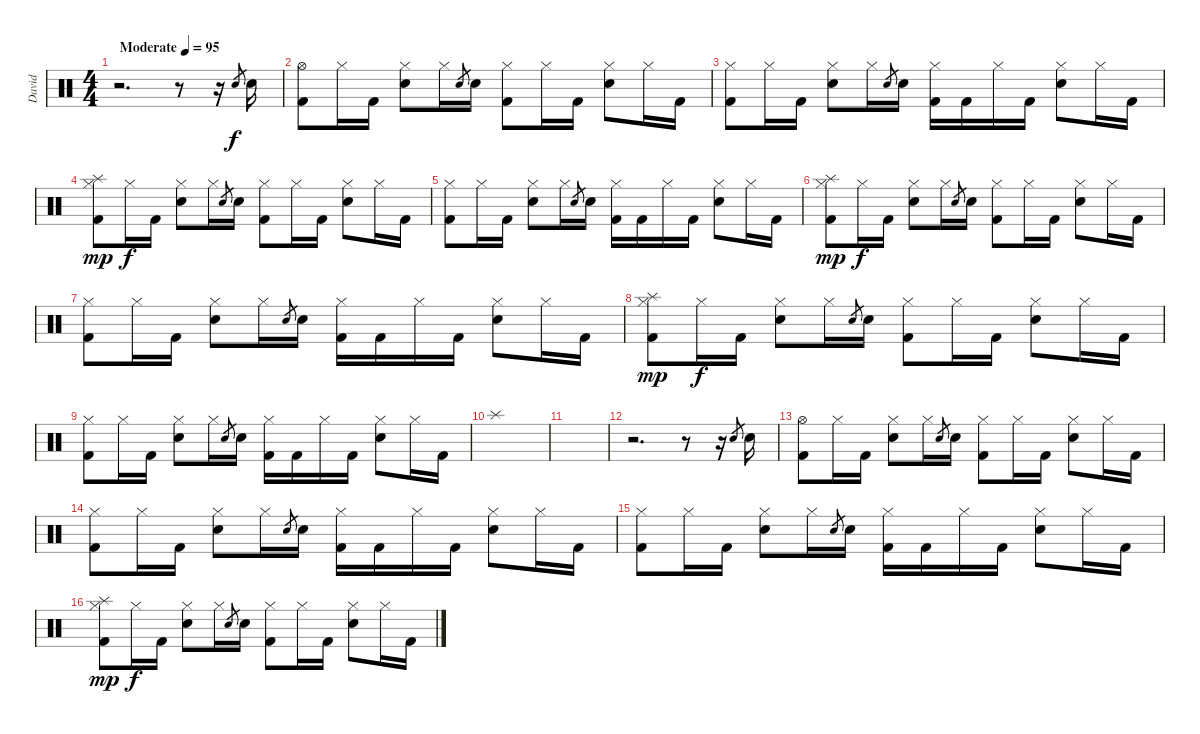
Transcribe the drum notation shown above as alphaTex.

\track ("David" "David") {instrument percussion}
\staff {score}
\articulation defaults
\ts (4 4)
\tempo (95 "Moderate")
\clef neutral
\ks c
r.2{d dy f} r.8 r.16 "Electric Snare (hit)".8{gr} "Electric Snare (hit)".16 |
("Hi-Hat (open)" "Kick (hit) 2").8 "Hi-Hat (closed)".16 "Kick (hit) 2".16 ("Hi-Hat (closed)" "Electric Snare (hit)").8 "Hi-Hat (closed)".16 "Electric Snare (hit)".8{gr} "Electric Snare (hit)".16 ("Hi-Hat (closed)" "Kick (hit) 2").8 "Hi-Hat (closed)".16 "Kick (hit) 2".16 ("Hi-Hat (closed)" "Electric Snare (hit)").8 "Hi-Hat (closed)".16 "Kick (hit) 2".16 |
("Hi-Hat (closed)" "Kick (hit) 2").8 "Hi-Hat (closed)".16 "Kick (hit) 2".16 ("Hi-Hat (closed)" "Electric Snare (hit)").8 "Hi-Hat (closed)".16 "Electric Snare (hit)".8{gr} "Electric Snare (hit)".16 ("Hi-Hat (closed)" "Kick (hit) 2").16 "Kick (hit) 2".16 "Hi-Hat (closed)".16 "Kick (hit) 2".16 ("Hi-Hat (closed)" "Electric Snare (hit)").8 "Hi-Hat (closed)".16 "Kick (hit) 2".16 |
("Hi-Hat (closed)" "Splash (hit)" "Kick (hit) 2").8{dy mp} "Hi-Hat (closed)".16{dy f} "Kick (hit) 2".16 ("Hi-Hat (closed)" "Electric Snare (hit)").8 "Hi-Hat (closed)".16 "Electric Snare (hit)".8{gr} "Electric Snare (hit)".16 ("Hi-Hat (closed)" "Kick (hit) 2").8 "Hi-Hat (closed)".16 "Kick (hit) 2".16 ("Hi-Hat (closed)" "Electric Snare (hit)").8 "Hi-Hat (closed)".16 "Kick (hit) 2".16 |
("Hi-Hat (closed)" "Kick (hit) 2").8 "Hi-Hat (closed)".16 "Kick (hit) 2".16 ("Hi-Hat (closed)" "Electric Snare (hit)").8 "Hi-Hat (closed)".16 "Electric Snare (hit)".8{gr} "Electric Snare (hit)".16 ("Hi-Hat (closed)" "Kick (hit) 2").16 "Kick (hit) 2".16 "Hi-Hat (closed)".16 "Kick (hit) 2".16 ("Hi-Hat (closed)" "Electric Snare (hit)").8 "Hi-Hat (closed)".16 "Kick (hit) 2".16 |
("Hi-Hat (closed)" "Splash (hit)" "Kick (hit) 2").8{dy mp} "Hi-Hat (closed)".16{dy f} "Kick (hit) 2".16 ("Hi-Hat (closed)" "Electric Snare (hit)").8 "Hi-Hat (closed)".16 "Electric Snare (hit)".8{gr} "Electric Snare (hit)".16 ("Hi-Hat (closed)" "Kick (hit) 2").8 "Hi-Hat (closed)".16 "Kick (hit) 2".16 ("Hi-Hat (closed)" "Electric Snare (hit)").8 "Hi-Hat (closed)".16 "Kick (hit) 2".16 |
("Hi-Hat (closed)" "Kick (hit) 2").8 "Hi-Hat (closed)".16 "Kick (hit) 2".16 ("Hi-Hat (closed)" "Electric Snare (hit)").8 "Hi-Hat (closed)".16 "Electric Snare (hit)".8{gr} "Electric Snare (hit)".16 ("Hi-Hat (closed)" "Kick (hit) 2").16 "Kick (hit) 2".16 "Hi-Hat (closed)".16 "Kick (hit) 2".16 ("Hi-Hat (closed)" "Electric Snare (hit)").8 "Hi-Hat (closed)".16 "Kick (hit) 2".16 |
("Hi-Hat (closed)" "Splash (hit)" "Kick (hit) 2").8{dy mp} "Hi-Hat (closed)".16{dy f} "Kick (hit) 2".16 ("Hi-Hat (closed)" "Electric Snare (hit)").8 "Hi-Hat (closed)".16 "Electric Snare (hit)".8{gr} "Electric Snare (hit)".16 ("Hi-Hat (closed)" "Kick (hit) 2").8 "Hi-Hat (closed)".16 "Kick (hit) 2".16 ("Hi-Hat (closed)" "Electric Snare (hit)").8 "Hi-Hat (closed)".16 "Kick (hit) 2".16 |
("Hi-Hat (closed)" "Kick (hit) 2").8 "Hi-Hat (closed)".16 "Kick (hit) 2".16 ("Hi-Hat (closed)" "Electric Snare (hit)").8 "Hi-Hat (closed)".16 "Electric Snare (hit)".8{gr} "Electric Snare (hit)".16 ("Hi-Hat (closed)" "Kick (hit) 2").16 "Kick (hit) 2".16 "Hi-Hat (closed)".16 "Kick (hit) 2".16 ("Hi-Hat (closed)" "Electric Snare (hit)").8 "Hi-Hat (closed)".16 "Kick (hit) 2".16 |
"Splash (hit)".1 |
|
r.2{d} r.8 r.16 "Electric Snare (hit)".8{gr} "Electric Snare (hit)".16 |
("Hi-Hat (open)" "Kick (hit) 2").8 "Hi-Hat (closed)".16 "Kick (hit) 2".16 ("Hi-Hat (closed)" "Electric Snare (hit)").8 "Hi-Hat (closed)".16 "Electric Snare (hit)".8{gr} "Electric Snare (hit)".16 ("Hi-Hat (closed)" "Kick (hit) 2").8 "Hi-Hat (closed)".16 "Kick (hit) 2".16 ("Hi-Hat (closed)" "Electric Snare (hit)").8 "Hi-Hat (closed)".16 "Kick (hit) 2".16 |
("Hi-Hat (closed)" "Kick (hit) 2").8 "Hi-Hat (closed)".16 "Kick (hit) 2".16 ("Hi-Hat (closed)" "Electric Snare (hit)").8 "Hi-Hat (closed)".16 "Electric Snare (hit)".8{gr} "Electric Snare (hit)".16 ("Hi-Hat (closed)" "Kick (hit) 2").16 "Kick (hit) 2".16 "Hi-Hat (closed)".16 "Kick (hit) 2".16 ("Hi-Hat (closed)" "Electric Snare (hit)").8 "Hi-Hat (closed)".16 "Kick (hit) 2".16 |
("Hi-Hat (closed)" "Kick (hit) 2").8 "Hi-Hat (closed)".16 "Kick (hit) 2".16 ("Hi-Hat (closed)" "Electric Snare (hit)").8 "Hi-Hat (closed)".16 "Electric Snare (hit)".8{gr} "Electric Snare (hit)".16 ("Hi-Hat (closed)" "Kick (hit) 2").16 "Kick (hit) 2".16 "Hi-Hat (closed)".16 "Kick (hit) 2".16 ("Hi-Hat (closed)" "Electric Snare (hit)").8 "Hi-Hat (closed)".16 "Kick (hit) 2".16 |
("Hi-Hat (closed)" "Splash (hit)" "Kick (hit) 2").8{dy mp} "Hi-Hat (closed)".16{dy f} "Kick (hit) 2".16 ("Hi-Hat (closed)" "Electric Snare (hit)").8 "Hi-Hat (closed)".16 "Electric Snare (hit)".8{gr} "Electric Snare (hit)".16 ("Hi-Hat (closed)" "Kick (hit) 2").8 "Hi-Hat (closed)".16 "Kick (hit) 2".16 ("Hi-Hat (closed)" "Electric Snare (hit)").8 "Hi-Hat (closed)".16 "Kick (hit) 2".16
